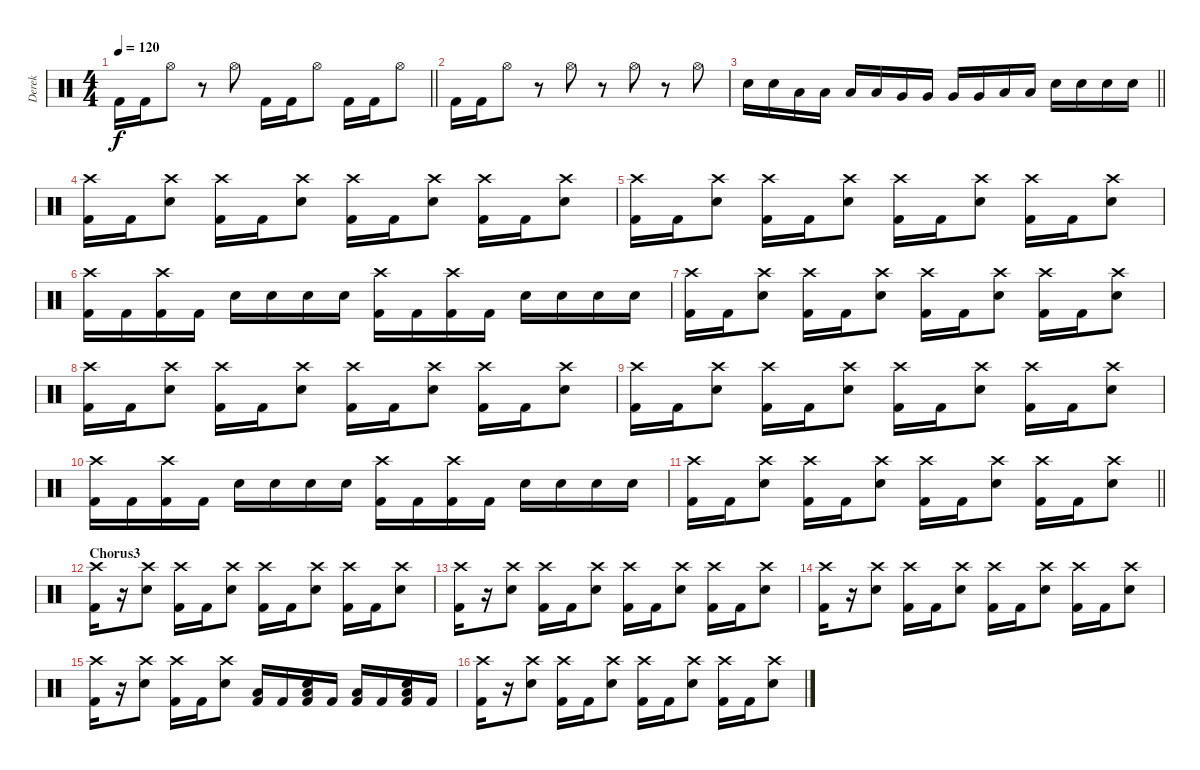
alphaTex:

\track ("Derek" "Derek") {instrument percussion}
\staff {score}
\articulation defaults
\ts (4 4)
\tempo 120
\clef neutral
\barLineRight lightlight
\ks c "Kick (hit) 2".16{dy f} "Kick (hit) 2".16 "Hi-Hat (open)".8
r.8 "Hi-Hat (open)".8 "Kick (hit) 2".16 "Kick (hit) 2".16 "Hi-Hat (open)".8 "Kick (hit) 2".16 "Kick (hit) 2".16 "Hi-Hat (open)".8 |
"Kick (hit) 2".16 "Kick (hit) 2".16 "Hi-Hat (open)".8 r.8 "Hi-Hat (open)".8 r.8 "Hi-Hat (open)".8 r.8 "Hi-Hat (open)".8 |
\barLineRight lightlight "Electric Snare (hit)".16 "Electric Snare (hit)".16 "Low Tom (hit)".16 "Low Tom (hit)".16 "Low Tom (hit)".16 "Low Tom (hit)".16 "Very Low Tom (hit)".16 "Very Low Tom (hit)".16 "Very Low Tom (hit)".16 "Very Low Tom (hit)".16 "Low Floor Tom (hit)".16 "Low Floor Tom (hit)".16 "Electric Snare (hit)".16 "Electric Snare (hit)".16 "Electric Snare (hit)".16 "Electric Snare (hit)".16
|
("Crash high (hit)" "Kick (hit) 2").16 "Kick (hit) 2".16 ("Crash high (hit)" "Electric Snare (hit)").8 ("Crash high (hit)" "Kick (hit) 2").16 "Kick (hit) 2".16 ("Crash high (hit)" "Electric Snare (hit)").8 ("Crash high (hit)" "Kick (hit) 2").16 "Kick (hit) 2".16 ("Crash high (hit)" "Electric Snare (hit)").8 ("Crash high (hit)" "Kick (hit) 2").16 "Kick (hit) 2".16 ("Crash high (hit)" "Electric Snare (hit)").8 |
("Crash high (hit)" "Kick (hit) 2").16 "Kick (hit) 2".16 ("Crash high (hit)" "Electric Snare (hit)").8 ("Crash high (hit)" "Kick (hit) 2").16 "Kick (hit) 2".16 ("Crash high (hit)" "Electric Snare (hit)").8 ("Crash high (hit)" "Kick (hit) 2").16 "Kick (hit) 2".16 ("Crash high (hit)" "Electric Snare (hit)").8 ("Crash high (hit)" "Kick (hit) 2").16 "Kick (hit) 2".16 ("Crash high (hit)" "Electric Snare (hit)").8 |
("Crash high (hit)" "Kick (hit) 2").16 "Kick (hit) 2".16 ("Crash high (hit)" "Kick (hit) 2").16 "Kick (hit) 2".16 "Electric Snare (hit)".16 "Electric Snare (hit)".16 "Electric Snare (hit)".16 "Electric Snare (hit)".16 ("Crash high (hit)" "Kick (hit) 2").16 "Kick (hit) 2".16 ("Crash high (hit)" "Kick (hit) 2").16 "Kick (hit) 2".16 "Electric Snare (hit)".16 "Electric Snare (hit)".16 "Electric Snare (hit)".16 "Electric Snare (hit)".16 |
("Crash high (hit)" "Kick (hit) 2").16 "Kick (hit) 2".16 ("Crash high (hit)" "Electric Snare (hit)").8 ("Crash high (hit)" "Kick (hit) 2").16 "Kick (hit) 2".16 ("Crash high (hit)" "Electric Snare (hit)").8 ("Crash high (hit)" "Kick (hit) 2").16 "Kick (hit) 2".16 ("Crash high (hit)" "Electric Snare (hit)").8 ("Crash high (hit)" "Kick (hit) 2").16 "Kick (hit) 2".16 ("Crash high (hit)" "Electric Snare (hit)").8 |
("Crash high (hit)" "Kick (hit) 2").16 "Kick (hit) 2".16 ("Crash high (hit)" "Electric Snare (hit)").8 ("Crash high (hit)" "Kick (hit) 2").16 "Kick (hit) 2".16 ("Crash high (hit)" "Electric Snare (hit)").8 ("Crash high (hit)" "Kick (hit) 2").16 "Kick (hit) 2".16 ("Crash high (hit)" "Electric Snare (hit)").8 ("Crash high (hit)" "Kick (hit) 2").16 "Kick (hit) 2".16 ("Crash high (hit)" "Electric Snare (hit)").8 |
("Crash high (hit)" "Kick (hit) 2").16 "Kick (hit) 2".16 ("Crash high (hit)" "Electric Snare (hit)").8 ("Crash high (hit)" "Kick (hit) 2").16 "Kick (hit) 2".16 ("Crash high (hit)" "Electric Snare (hit)").8 ("Crash high (hit)" "Kick (hit) 2").16 "Kick (hit) 2".16 ("Crash high (hit)" "Electric Snare (hit)").8 ("Crash high (hit)" "Kick (hit) 2").16 "Kick (hit) 2".16 ("Crash high (hit)" "Electric Snare (hit)").8 |
("Crash high (hit)" "Kick (hit) 2").16 "Kick (hit) 2".16 ("Crash high (hit)" "Kick (hit) 2").16 "Kick (hit) 2".16 "Electric Snare (hit)".16 "Electric Snare (hit)".16 "Electric Snare (hit)".16 "Electric Snare (hit)".16 ("Crash high (hit)" "Kick (hit) 2").16 "Kick (hit) 2".16 ("Crash high (hit)" "Kick (hit) 2").16 "Kick (hit) 2".16 "Electric Snare (hit)".16 "Electric Snare (hit)".16 "Electric Snare (hit)".16 "Electric Snare (hit)".16 |
\barLineRight lightlight
("Crash high (hit)" "Kick (hit) 2").16 "Kick (hit) 2".16 ("Crash high (hit)" "Electric Snare (hit)").8 ("Crash high (hit)" "Kick (hit) 2").16 "Kick (hit) 2".16 ("Crash high (hit)" "Electric Snare (hit)").8 ("Crash high (hit)" "Kick (hit) 2").16 "Kick (hit) 2".16 ("Crash high (hit)" "Electric Snare (hit)").8 ("Crash high (hit)" "Kick (hit) 2").16 "Kick (hit) 2".16 ("Crash high (hit)" "Electric Snare (hit)").8 |
\section ("" "Chorus3")
("Crash high (hit)" "Kick (hit) 2").16 r.16 ("Crash high (hit)" "Electric Snare (hit)").8 ("Crash high (hit)" "Kick (hit) 2").16 "Kick (hit) 2".16 ("Crash high (hit)" "Electric Snare (hit)").8 ("Crash high (hit)" "Kick (hit) 2").16 "Kick (hit) 2".16 ("Crash high (hit)" "Electric Snare (hit)").8 ("Crash high (hit)" "Kick (hit) 2").16 "Kick (hit) 2".16 ("Crash high (hit)" "Electric Snare (hit)").8 |
("Crash high (hit)" "Kick (hit) 2").16 r.16 ("Crash high (hit)" "Electric Snare (hit)").8 ("Crash high (hit)" "Kick (hit) 2").16 "Kick (hit) 2".16 ("Crash high (hit)" "Electric Snare (hit)").8 ("Crash high (hit)" "Kick (hit) 2").16 "Kick (hit) 2".16 ("Crash high (hit)" "Electric Snare (hit)").8 ("Crash high (hit)" "Kick (hit) 2").16 "Kick (hit) 2".16 ("Crash high (hit)" "Electric Snare (hit)").8 |
("Crash high (hit)" "Kick (hit) 2").16 r.16 ("Crash high (hit)" "Electric Snare (hit)").8 ("Crash high (hit)" "Kick (hit) 2").16 "Kick (hit) 2".16 ("Crash high (hit)" "Electric Snare (hit)").8 ("Crash high (hit)" "Kick (hit) 2").16 "Kick (hit) 2".16 ("Crash high (hit)" "Electric Snare (hit)").8 ("Crash high (hit)" "Kick (hit) 2").16 "Kick (hit) 2".16 ("Crash high (hit)" "Electric Snare (hit)").8 |
("Crash high (hit)" "Kick (hit) 2").16 r.16 ("Crash high (hit)" "Electric Snare (hit)").8 ("Crash high (hit)" "Kick (hit) 2").16 "Kick (hit) 2".16 ("Crash high (hit)" "Electric Snare (hit)").8 ("Low Floor Tom (hit)" "Kick (hit) 2").16 "Kick (hit) 2".16 ("Low Floor Tom (hit)" "Electric Snare (hit)" "Kick (hit) 2").16 "Kick (hit) 2".16 ("Low Floor Tom (hit)" "Kick (hit) 2").16 "Kick (hit) 2".16 ("Low Floor Tom (hit)" "Electric Snare (hit)" "Kick (hit) 2").16 "Kick (hit) 2".16 |
("Crash high (hit)" "Kick (hit) 2").16 r.16 ("Crash high (hit)" "Electric Snare (hit)").8 ("Crash high (hit)" "Kick (hit) 2").16 "Kick (hit) 2".16 ("Crash high (hit)" "Electric Snare (hit)").8 ("Crash high (hit)" "Kick (hit) 2").16 "Kick (hit) 2".16 ("Crash high (hit)" "Electric Snare (hit)").8 ("Crash high (hit)" "Kick (hit) 2").16 "Kick (hit) 2".16 ("Crash high (hit)" "Electric Snare (hit)").8
